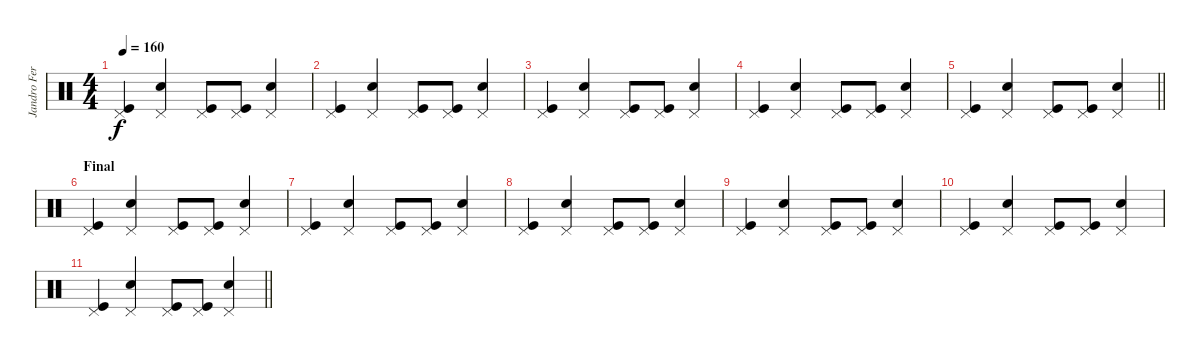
\track ("Jandro Fernández" "Jandro Fer") {instrument percussion}
\staff
\articulation defaults
\ts (4 4)
\tempo 160
\clef neutral
\ks c
("Pedal Hi-Hat (hit)" "Kick (hit)").4{dy f} ("Pedal Hi-Hat (hit)" "Snare (hit) 2").4 ("Pedal Hi-Hat (hit)" "Kick (hit)").8 ("Pedal Hi-Hat (hit)" "Kick (hit)").8 ("Pedal Hi-Hat (hit)" "Snare (hit) 2").4 |
("Pedal Hi-Hat (hit)" "Kick (hit)").4 ("Pedal Hi-Hat (hit)" "Snare (hit) 2").4 ("Pedal Hi-Hat (hit)" "Kick (hit)").8 ("Pedal Hi-Hat (hit)" "Kick (hit)").8 ("Pedal Hi-Hat (hit)" "Snare (hit) 2").4 |
("Pedal Hi-Hat (hit)" "Kick (hit)").4 ("Pedal Hi-Hat (hit)" "Snare (hit) 2").4 ("Pedal Hi-Hat (hit)" "Kick (hit)").8 ("Pedal Hi-Hat (hit)" "Kick (hit)").8 ("Pedal Hi-Hat (hit)" "Snare (hit) 2").4 |
("Pedal Hi-Hat (hit)" "Kick (hit)").4 ("Pedal Hi-Hat (hit)" "Snare (hit) 2").4 ("Pedal Hi-Hat (hit)" "Kick (hit)").8 ("Pedal Hi-Hat (hit)" "Kick (hit)").8 ("Pedal Hi-Hat (hit)" "Snare (hit) 2").4 |
\barLineRight lightlight
("Pedal Hi-Hat (hit)" "Kick (hit)").4 ("Pedal Hi-Hat (hit)" "Snare (hit) 2").4 ("Pedal Hi-Hat (hit)" "Kick (hit)").8 ("Pedal Hi-Hat (hit)" "Kick (hit)").8 ("Pedal Hi-Hat (hit)" "Snare (hit) 2").4 |
\section ("" "Final")
("Pedal Hi-Hat (hit)" "Kick (hit)").4 ("Pedal Hi-Hat (hit)" "Snare (hit) 2").4 ("Pedal Hi-Hat (hit)" "Kick (hit)").8 ("Pedal Hi-Hat (hit)" "Kick (hit)").8 ("Pedal Hi-Hat (hit)" "Snare (hit) 2").4 |
("Pedal Hi-Hat (hit)" "Kick (hit)").4 ("Pedal Hi-Hat (hit)" "Snare (hit) 2").4 ("Pedal Hi-Hat (hit)" "Kick (hit)").8 ("Pedal Hi-Hat (hit)" "Kick (hit)").8 ("Pedal Hi-Hat (hit)" "Snare (hit) 2").4 |
("Pedal Hi-Hat (hit)" "Kick (hit)").4 ("Pedal Hi-Hat (hit)" "Snare (hit) 2").4 ("Pedal Hi-Hat (hit)" "Kick (hit)").8 ("Pedal Hi-Hat (hit)" "Kick (hit)").8 ("Pedal Hi-Hat (hit)" "Snare (hit) 2").4 |
("Pedal Hi-Hat (hit)" "Kick (hit)").4 ("Pedal Hi-Hat (hit)" "Snare (hit) 2").4 ("Pedal Hi-Hat (hit)" "Kick (hit)").8 ("Pedal Hi-Hat (hit)" "Kick (hit)").8 ("Pedal Hi-Hat (hit)" "Snare (hit) 2").4 |
("Pedal Hi-Hat (hit)" "Kick (hit)").4 ("Pedal Hi-Hat (hit)" "Snare (hit) 2").4 ("Pedal Hi-Hat (hit)" "Kick (hit)").8 ("Pedal Hi-Hat (hit)" "Kick (hit)").8 ("Pedal Hi-Hat (hit)" "Snare (hit) 2").4 |
\barLineRight lightlight
("Pedal Hi-Hat (hit)" "Kick (hit)").4 ("Pedal Hi-Hat (hit)" "Snare (hit) 2").4 ("Pedal Hi-Hat (hit)" "Kick (hit)").8 ("Pedal Hi-Hat (hit)" "Kick (hit)").8 ("Pedal Hi-Hat (hit)" "Snare (hit) 2").4
